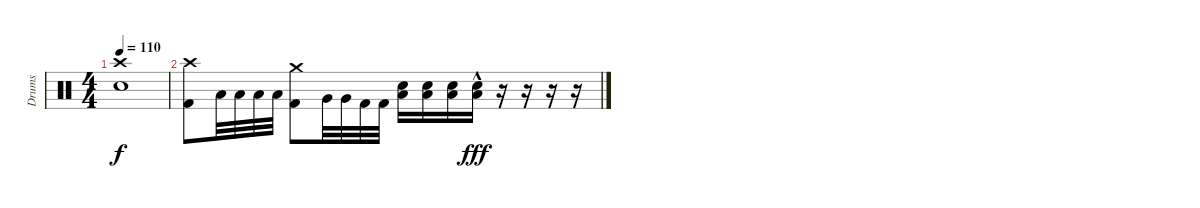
\track ("Drums" "Drums") {instrument percussion}
\staff {score}
\articulation defaults
\ts (4 4)
\tempo 110
\clef neutral
\ks c
("Crash high (hit)" "Electric Snare (hit)").1{dy f} |
("Crash high (hit)" "Kick (hit) 2").8 "Low Tom (hit)".32 "Low Tom (hit)".32 "Low Tom (hit)".32 "Low Tom (hit)".32 ("Crash medium (hit)" "Kick (hit) 2").8 "Very Low Tom (hit)".32 "Very Low Tom (hit)".32 "Kick (hit) 2".32 "Kick (hit) 2".32 ("Electric Snare (hit)" "Low Floor Tom (hit)").16 ("Electric Snare (hit)" "Low Floor Tom (hit)").16 ("Electric Snare (hit)" "Low Floor Tom (hit)").16 ("Electric Snare (hit)"{hac} "Low Floor Tom (hit)"{hac}).16{dy fff} r.16 r.16 r.16 r.16
